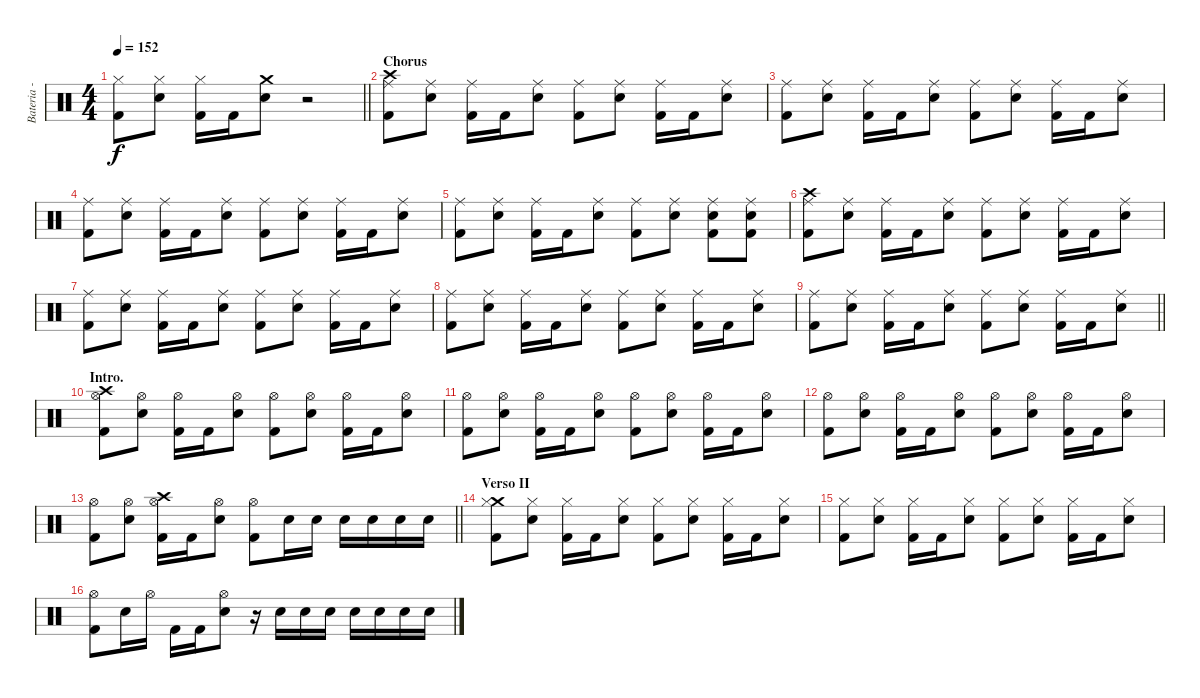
\track ("Bateria - Larzon " "Bateria - ") {instrument percussion}
\staff {score}
\articulation defaults
\ts (4 4)
\tempo 152
\clef neutral
\barLineRight lightlight
\ks c
("Kick (hit) 2" "Hi-Hat (closed)").8{dy f} ("Snare (hit) 2" "Hi-Hat (closed)").8 ("Kick (hit) 2" "Hi-Hat (closed)").16 "Kick (hit) 2".16 ("Snare (hit) 2" "Crash medium (hit)").8 r.2 |
\section ("" "Chorus")
("Kick (hit) 2" "Crash high (hit)" "Ride (middle)").8 ("Snare (hit) 2" "Ride (middle)").8 ("Kick (hit) 2" "Ride (middle)").16 "Kick (hit) 2".16 ("Snare (hit) 2" "Ride (middle)").8 ("Kick (hit) 2" "Ride (middle)").8 ("Snare (hit) 2" "Ride (middle)").8 ("Kick (hit) 2" "Ride (middle)").16 "Kick (hit) 2".16 ("Snare (hit) 2" "Ride (middle)").8 |
("Kick (hit) 2" "Ride (middle)").8 ("Snare (hit) 2" "Ride (middle)").8 ("Kick (hit) 2" "Ride (middle)").16 "Kick (hit) 2".16 ("Snare (hit) 2" "Ride (middle)").8 ("Kick (hit) 2" "Ride (middle)").8 ("Snare (hit) 2" "Ride (middle)").8 ("Kick (hit) 2" "Ride (middle)").16 "Kick (hit) 2".16 ("Snare (hit) 2" "Ride (middle)").8 |
("Kick (hit) 2" "Ride (middle)").8 ("Snare (hit) 2" "Ride (middle)").8 ("Kick (hit) 2" "Ride (middle)").16 "Kick (hit) 2".16 ("Snare (hit) 2" "Ride (middle)").8 ("Kick (hit) 2" "Ride (middle)").8 ("Snare (hit) 2" "Ride (middle)").8 ("Kick (hit) 2" "Ride (middle)").16 "Kick (hit) 2".16 ("Snare (hit) 2" "Ride (middle)").8 |
("Kick (hit) 2" "Ride (middle)").8 ("Snare (hit) 2" "Ride (middle)").8 ("Kick (hit) 2" "Ride (middle)").16 "Kick (hit) 2".16 ("Snare (hit) 2" "Ride (middle)").8 ("Kick (hit) 2" "Ride (middle)").8 ("Snare (hit) 2" "Ride (middle)").8 ("Kick (hit) 2" "Ride (middle)" "Snare (hit) 2").8 ("Kick (hit) 2" "Ride (middle)" "Snare (hit) 2").8 |
("Kick (hit) 2" "Crash high (hit)" "Ride (middle)").8 ("Snare (hit) 2" "Ride (middle)").8 ("Kick (hit) 2" "Ride (middle)").16 "Kick (hit) 2".16 ("Snare (hit) 2" "Ride (middle)").8 ("Kick (hit) 2" "Ride (middle)").8 ("Snare (hit) 2" "Ride (middle)").8 ("Kick (hit) 2" "Ride (middle)").16 "Kick (hit) 2".16 ("Snare (hit) 2" "Ride (middle)").8 |
("Kick (hit) 2" "Ride (middle)").8 ("Snare (hit) 2" "Ride (middle)").8 ("Kick (hit) 2" "Ride (middle)").16 "Kick (hit) 2".16 ("Snare (hit) 2" "Ride (middle)").8 ("Kick (hit) 2" "Ride (middle)").8 ("Snare (hit) 2" "Ride (middle)").8 ("Kick (hit) 2" "Ride (middle)").16 "Kick (hit) 2".16 ("Snare (hit) 2" "Ride (middle)").8 |
("Kick (hit) 2" "Ride (middle)").8 ("Snare (hit) 2" "Ride (middle)").8 ("Kick (hit) 2" "Ride (middle)").16 "Kick (hit) 2".16 ("Snare (hit) 2" "Ride (middle)").8 ("Kick (hit) 2" "Ride (middle)").8 ("Snare (hit) 2" "Ride (middle)").8 ("Kick (hit) 2" "Ride (middle)").16 "Kick (hit) 2".16 ("Snare (hit) 2" "Ride (middle)").8 |
\barLineRight lightlight
("Kick (hit) 2" "Ride (middle)").8 ("Snare (hit) 2" "Ride (middle)").8 ("Kick (hit) 2" "Ride (middle)").16 "Kick (hit) 2".16 ("Snare (hit) 2" "Ride (middle)").8 ("Kick (hit) 2" "Ride (middle)").8 ("Snare (hit) 2" "Ride (middle)").8 ("Kick (hit) 2" "Ride (middle)").16 "Kick (hit) 2".16 ("Snare (hit) 2" "Ride (middle)").8 |
\section ("" "Intro.")
("Kick (hit) 2" "Crash high (hit)" "Hi-Hat (open)").8 ("Snare (hit) 2" "Hi-Hat (open)").8 ("Kick (hit) 2" "Hi-Hat (open)").16 "Kick (hit) 2".16 ("Snare (hit) 2" "Hi-Hat (open)").8 ("Kick (hit) 2" "Hi-Hat (open)").8 ("Snare (hit) 2" "Hi-Hat (open)").8 ("Kick (hit) 2" "Hi-Hat (open)").16 "Kick (hit) 2".16 ("Snare (hit) 2" "Hi-Hat (open)").8 |
("Kick (hit) 2" "Hi-Hat (open)").8 ("Snare (hit) 2" "Hi-Hat (open)").8 ("Kick (hit) 2" "Hi-Hat (open)").16 "Kick (hit) 2".16 ("Snare (hit) 2" "Hi-Hat (open)").8 ("Kick (hit) 2" "Hi-Hat (open)").8 ("Snare (hit) 2" "Hi-Hat (open)").8 ("Kick (hit) 2" "Hi-Hat (open)").16 "Kick (hit) 2".16 ("Snare (hit) 2" "Hi-Hat (open)").8 |
("Kick (hit) 2" "Hi-Hat (open)").8 ("Snare (hit) 2" "Hi-Hat (open)").8 ("Kick (hit) 2" "Hi-Hat (open)").16 "Kick (hit) 2".16 ("Snare (hit) 2" "Hi-Hat (open)").8 ("Kick (hit) 2" "Hi-Hat (open)").8 ("Snare (hit) 2" "Hi-Hat (open)").8 ("Kick (hit) 2" "Hi-Hat (open)").16 "Kick (hit) 2".16 ("Snare (hit) 2" "Hi-Hat (open)").8 |
\barLineRight lightlight
("Kick (hit) 2" "Hi-Hat (open)").8 ("Snare (hit) 2" "Hi-Hat (open)").8 ("Kick (hit) 2" "Crash high (hit)" "Hi-Hat (open)").16 "Kick (hit) 2".16 ("Snare (hit) 2" "Hi-Hat (open)").8 ("Kick (hit) 2" "Hi-Hat (open)").8 "Snare (hit) 2".16 "Snare (hit) 2".16 "Snare (hit) 2".16 "Snare (hit) 2".16 "Snare (hit) 2".16 "Snare (hit) 2".16 |
\section ("" "Verso II")
("Kick (hit) 2" "Crash medium (hit)" "Hi-Hat (closed)").8 ("Snare (hit) 2" "Hi-Hat (closed)").8 ("Kick (hit) 2" "Hi-Hat (closed)").16 "Kick (hit) 2".16 ("Snare (hit) 2" "Hi-Hat (closed)").8 ("Kick (hit) 2" "Hi-Hat (closed)").8 ("Snare (hit) 2" "Hi-Hat (closed)").8 ("Kick (hit) 2" "Hi-Hat (closed)").16 "Kick (hit) 2".16 ("Snare (hit) 2" "Hi-Hat (closed)").8 |
("Kick (hit) 2" "Hi-Hat (closed)").8 ("Snare (hit) 2" "Hi-Hat (closed)").8 ("Kick (hit) 2" "Hi-Hat (closed)").16 "Kick (hit) 2".16 ("Snare (hit) 2" "Hi-Hat (closed)").8 ("Kick (hit) 2" "Hi-Hat (closed)").8 ("Snare (hit) 2" "Hi-Hat (closed)").8 ("Kick (hit) 2" "Hi-Hat (closed)").16 "Kick (hit) 2".16 ("Snare (hit) 2" "Hi-Hat (closed)").8 |
("Kick (hit) 2" "Hi-Hat (open)").8 "Snare (hit) 2".16 "Hi-Hat (open)".16 "Kick (hit) 2".16 "Kick (hit) 2".16 ("Snare (hit) 2" "Hi-Hat (open)").8 r.16 "Snare (hit) 2".16 "Snare (hit) 2".16 "Snare (hit) 2".16 "Snare (hit) 2".16 "Snare (hit) 2".16 "Snare (hit) 2".16 "Snare (hit) 2".16
